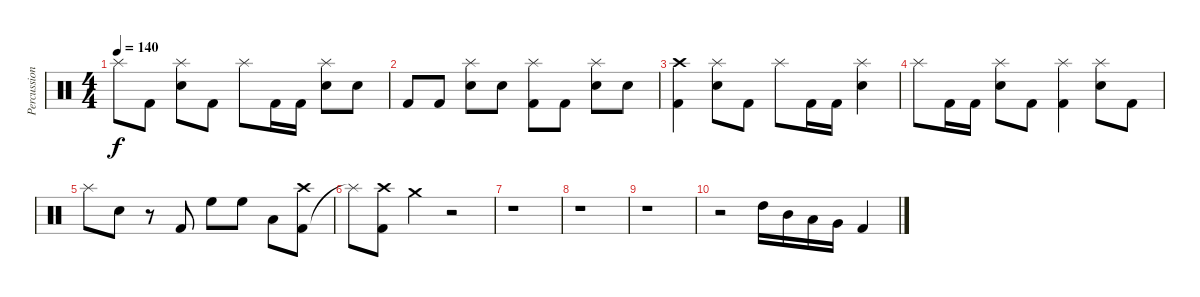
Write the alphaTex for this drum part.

\track ("Percussion" "Percussion") {instrument percussion}
\staff {score}
\articulation defaults
\ts (4 4)
\tempo 140
\clef neutral
\ks c "Splash (hit)".8{dy f} "Kick (hit) 2".8
("Snare (hit) 2" "Splash (hit)").8 "Kick (hit) 2".8 "Splash (hit)".8 "Kick (hit) 2".16 "Kick (hit) 2".16 ("Snare (hit) 2" "Splash (hit)").8 "Snare (hit) 2".8 |
"Kick (hit) 2".8 "Kick (hit) 2".8 ("Snare (hit) 2" "Splash (hit)").8 "Snare (hit) 2".8 ("Kick (hit) 2" "Splash (hit)").8 "Kick (hit) 2".8 ("Snare (hit) 2" "Splash (hit)").8 "Snare (hit) 2".8 |
("Kick (hit) 2" "Crash high (hit)").4 ("Snare (hit) 2" "Splash (hit)").8 "Kick (hit) 2".8 "Splash (hit)".8 "Kick (hit) 2".16 "Kick (hit) 2".16 ("Snare (hit) 2" "Splash (hit)").4 |
"Splash (hit)".8 "Kick (hit) 2".16 "Kick (hit) 2".16 ("Snare (hit) 2" "Splash (hit)").8 "Kick (hit) 2".8 ("Kick (hit) 2" "Splash (hit)").4 ("Snare (hit) 2" "Splash (hit)").8 "Kick (hit) 2".8 |
"Splash (hit)".8 "Snare (hit) 2".8 r.8 "Kick (hit) 2".8 "High Floor Tom (hit)".8 "High Floor Tom (hit)".8 "Low Tom (hit)".8 ("Kick (hit) 2" "Crash high (hit)").8 |
"Splash (hit)"{t}.8 ("Kick (hit) 2" "Crash high (hit)").8 "Crash medium (hit)".4 r.2 |
r.1 |
r.1 |
r.1 |
r.2 "High Tom (hit)".16 "Mid Tom (hit)".16 "Low Tom (hit)".16 "Very Low Tom (hit)".16 "Kick (hit) 2".4
